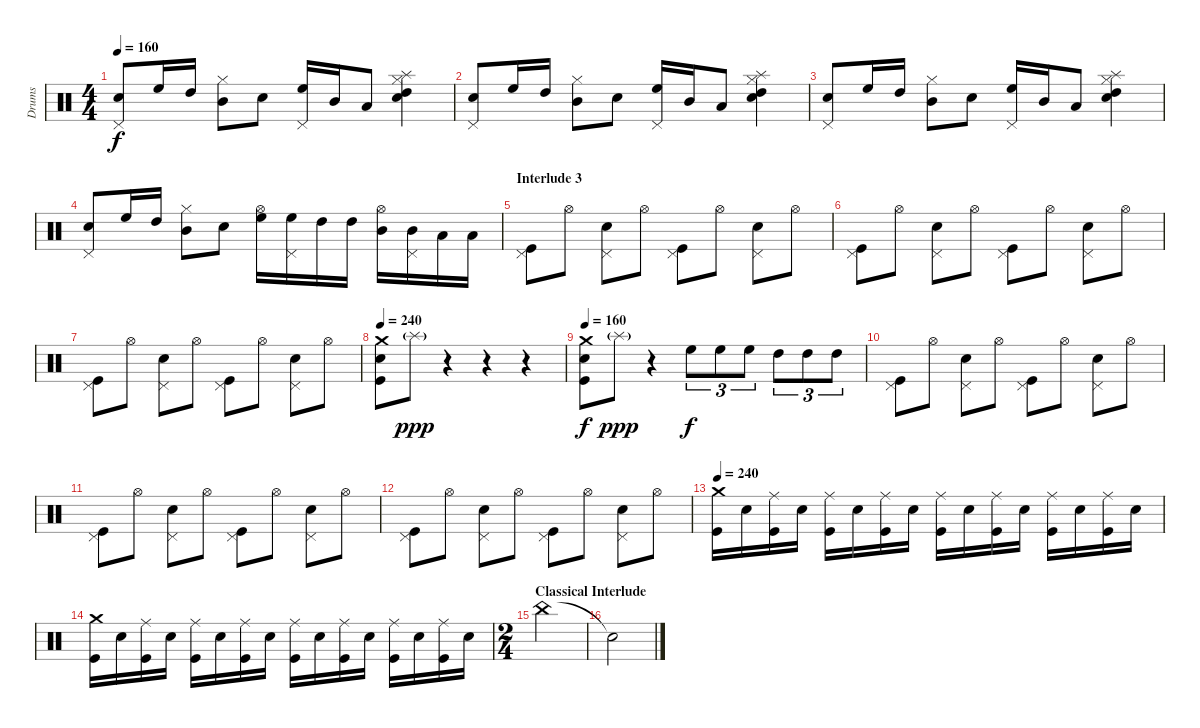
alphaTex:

\track ("Drums" "Drums") {instrument percussion}
\staff {score}
\articulation defaults
\ts (4 4)
\tempo 160
\clef neutral
\ks c
("Pedal Hi-Hat (hit)" "Electric Snare (hit)").8{dy f} "High Floor Tom (hit)".16 "High Tom (hit)".16 ("Hi-Hat (closed)" "Mid Tom (hit)").8 "Electric Snare (hit)".8 ("Pedal Hi-Hat (hit)" "High Floor Tom (hit)").16 "Mid Tom (hit)".16 "Low Tom (hit)".8 ("Splash (hit)" "Hi-Hat (closed)" "Electric Snare (hit)" "High Tom (hit)").4 |
("Pedal Hi-Hat (hit)" "Electric Snare (hit)").8 "High Floor Tom (hit)".16 "High Tom (hit)".16 ("Hi-Hat (closed)" "Mid Tom (hit)").8 "Electric Snare (hit)".8 ("Pedal Hi-Hat (hit)" "High Floor Tom (hit)").16 "Mid Tom (hit)".16 "Low Tom (hit)".8 ("Splash (hit)" "Hi-Hat (closed)" "Electric Snare (hit)" "High Tom (hit)").4 |
("Pedal Hi-Hat (hit)" "Electric Snare (hit)").8 "High Floor Tom (hit)".16 "High Tom (hit)".16 ("Hi-Hat (closed)" "Mid Tom (hit)").8 "Electric Snare (hit)".8 ("Pedal Hi-Hat (hit)" "High Floor Tom (hit)").16 "Mid Tom (hit)".16 "Low Tom (hit)".8 ("Splash (hit)" "Hi-Hat (closed)" "Electric Snare (hit)" "High Tom (hit)").4 |
("Pedal Hi-Hat (hit)" "Electric Snare (hit)").8 "High Floor Tom (hit)".16 "High Tom (hit)".16 ("Hi-Hat (closed)" "Mid Tom (hit)").8 "Electric Snare (hit)".8 ("Hi-Hat (open)" "High Floor Tom (hit)").16 ("Pedal Hi-Hat (hit)" "High Floor Tom (hit)").16 "High Tom (hit)".16 "High Tom (hit)".16 ("Hi-Hat (open)" "Mid Tom (hit)").16 ("Pedal Hi-Hat (hit)" "Mid Tom (hit)").16 "Low Tom (hit)".16 "Low Tom (hit)".16 |
\section ("" "Interlude 3")
("Pedal Hi-Hat (hit)" "Kick (hit)").8 "Hi-Hat (open)".8 ("Pedal Hi-Hat (hit)" "Electric Snare (hit)").8 "Hi-Hat (open)".8 ("Pedal Hi-Hat (hit)" "Kick (hit)").8 "Hi-Hat (open)".8 ("Pedal Hi-Hat (hit)" "Electric Snare (hit)").8 "Hi-Hat (open)".8 |
("Pedal Hi-Hat (hit)" "Kick (hit)").8 "Hi-Hat (open)".8 ("Pedal Hi-Hat (hit)" "Electric Snare (hit)").8 "Hi-Hat (open)".8 ("Pedal Hi-Hat (hit)" "Kick (hit)").8 "Hi-Hat (open)".8 ("Pedal Hi-Hat (hit)" "Electric Snare (hit)").8 "Hi-Hat (open)".8 |
("Pedal Hi-Hat (hit)" "Kick (hit)").8 "Hi-Hat (open)".8 ("Pedal Hi-Hat (hit)" "Electric Snare (hit)").8 "Hi-Hat (open)".8 ("Pedal Hi-Hat (hit)" "Kick (hit)").8 "Hi-Hat (open)".8 ("Pedal Hi-Hat (hit)" "Electric Snare (hit)").8 "Hi-Hat (open)".8 |
\tempo 240
("Crash medium (hit)" "Electric Snare (hit)" "Kick (hit)").8 "Splash (hit)"{g}.8{dy ppp} r.4 r.4 r.4 |
\tempo 160
("Crash medium (hit)" "Electric Snare (hit)" "Kick (hit)").8{dy f} "Splash (hit)"{g}.8{dy ppp} r.4 "High Floor Tom (hit)".8{tu (3 2) dy f} "High Floor Tom (hit)".8{tu (3 2)} "High Floor Tom (hit)".8{tu (3 2)} "High Tom (hit)".8{tu (3 2)} "High Tom (hit)".8{tu (3 2)} "High Tom (hit)".8{tu (3 2)} |
("Pedal Hi-Hat (hit)" "Kick (hit)").8 "Hi-Hat (open)".8 ("Pedal Hi-Hat (hit)" "Electric Snare (hit)").8 "Hi-Hat (open)".8 ("Pedal Hi-Hat (hit)" "Kick (hit)").8 "Hi-Hat (open)".8 ("Pedal Hi-Hat (hit)" "Electric Snare (hit)").8 "Hi-Hat (open)".8 |
("Pedal Hi-Hat (hit)" "Kick (hit)").8 "Hi-Hat (open)".8 ("Pedal Hi-Hat (hit)" "Electric Snare (hit)").8 "Hi-Hat (open)".8 ("Pedal Hi-Hat (hit)" "Kick (hit)").8 "Hi-Hat (open)".8 ("Pedal Hi-Hat (hit)" "Electric Snare (hit)").8 "Hi-Hat (open)".8 |
("Pedal Hi-Hat (hit)" "Kick (hit)").8 "Hi-Hat (open)".8 ("Pedal Hi-Hat (hit)" "Electric Snare (hit)").8 "Hi-Hat (open)".8 ("Pedal Hi-Hat (hit)" "Kick (hit)").8 "Hi-Hat (open)".8 ("Pedal Hi-Hat (hit)" "Electric Snare (hit)").8 "Hi-Hat (open)".8 |
\tempo 240
("Crash medium (hit)" "Kick (hit)").16 "Electric Snare (hit)".16 ("Ride (middle)" "Kick (hit)").16 "Electric Snare (hit)".16 ("Ride (middle)" "Kick (hit)").16 "Electric Snare (hit)".16 ("Ride (middle)" "Kick (hit)").16 "Electric Snare (hit)".16 ("Ride (middle)" "Kick (hit)").16 "Electric Snare (hit)".16 ("Ride (middle)" "Kick (hit)").16 "Electric Snare (hit)".16 ("Ride (middle)" "Kick (hit)").16 "Electric Snare (hit)".16 ("Ride (middle)" "Kick (hit)").16 "Electric Snare (hit)".16 |
("Crash medium (hit)" "Kick (hit)").16 "Electric Snare (hit)".16 ("Ride (middle)" "Kick (hit)").16 "Electric Snare (hit)".16 ("Ride (middle)" "Kick (hit)").16 "Electric Snare (hit)".16 ("Ride (middle)" "Kick (hit)").16 "Electric Snare (hit)".16 ("Ride (middle)" "Kick (hit)").16 "Electric Snare (hit)".16 ("Ride (middle)" "Kick (hit)").16 "Electric Snare (hit)".16 ("Ride (middle)" "Kick (hit)").16 "Electric Snare (hit)".16 ("Ride (middle)" "Kick (hit)").16 "Electric Snare (hit)".16 |
\ts (2 4)
\section ("" "Classical Interlude")
"China (hit)".2 |
"Snare (hit)"{t}.2
